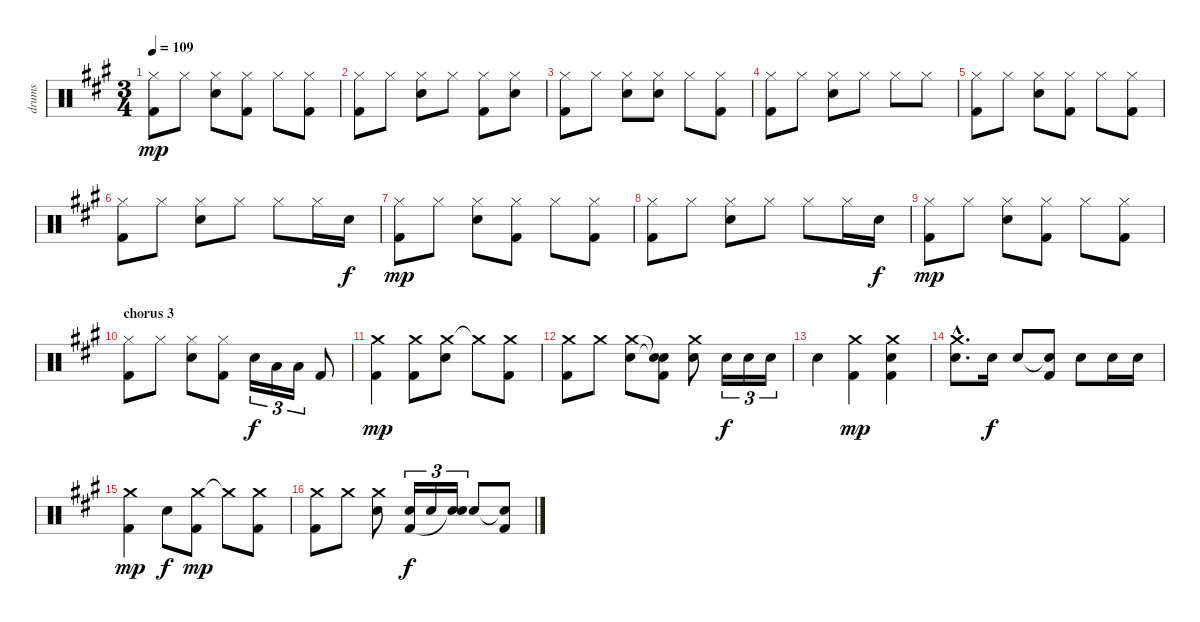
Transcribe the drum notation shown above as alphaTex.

\track ("drums" "drums") {instrument percussion}
\staff {score}
\articulation defaults
\ts (3 4)
\tempo 109
\clef neutral
\ks a
("Hi-Hat (closed)" "Kick (hit) 2").8{dy mp} "Hi-Hat (closed)".8 ("Hi-Hat (closed)" "Snare (hit) 2").8 ("Hi-Hat (closed)" "Kick (hit) 2").8 "Hi-Hat (closed)".8 ("Hi-Hat (closed)" "Kick (hit) 2").8 |
("Hi-Hat (closed)" "Kick (hit) 2").8 "Hi-Hat (closed)".8 ("Hi-Hat (closed)" "Snare (hit) 2").8 "Hi-Hat (closed)".8 ("Hi-Hat (closed)" "Kick (hit) 2").8 ("Hi-Hat (closed)" "Snare (hit) 2").8 |
("Hi-Hat (closed)" "Kick (hit) 2").8 "Hi-Hat (closed)".8 ("Hi-Hat (closed)" "Snare (hit) 2").8 ("Hi-Hat (closed)" "Snare (hit) 2").8 "Hi-Hat (closed)".8 ("Hi-Hat (closed)" "Kick (hit) 2").8 |
("Hi-Hat (closed)" "Kick (hit) 2").8 "Hi-Hat (closed)".8 ("Hi-Hat (closed)" "Snare (hit) 2").8 "Hi-Hat (closed)".8 "Hi-Hat (closed)".8 "Hi-Hat (closed)".8 |
("Hi-Hat (closed)" "Kick (hit) 2").8 "Hi-Hat (closed)".8 ("Hi-Hat (closed)" "Snare (hit) 2").8 ("Hi-Hat (closed)" "Kick (hit) 2").8 "Hi-Hat (closed)".8 ("Hi-Hat (closed)" "Kick (hit) 2").8 |
("Hi-Hat (closed)" "Kick (hit) 2").8 "Hi-Hat (closed)".8 ("Hi-Hat (closed)" "Snare (hit) 2").8 "Hi-Hat (closed)".8 "Hi-Hat (closed)".8 "Hi-Hat (closed)".16 "Snare (hit) 2".16{dy f} |
("Hi-Hat (closed)" "Kick (hit) 2").8{dy mp} "Hi-Hat (closed)".8 ("Hi-Hat (closed)" "Snare (hit) 2").8 ("Hi-Hat (closed)" "Kick (hit) 2").8 "Hi-Hat (closed)".8 ("Hi-Hat (closed)" "Kick (hit) 2").8 |
("Hi-Hat (closed)" "Kick (hit) 2").8 "Hi-Hat (closed)".8 ("Hi-Hat (closed)" "Snare (hit) 2").8 "Hi-Hat (closed)".8 "Hi-Hat (closed)".8 "Hi-Hat (closed)".16 "Snare (hit) 2".16{dy f} |
("Hi-Hat (closed)" "Kick (hit) 2").8{dy mp} "Hi-Hat (closed)".8 ("Hi-Hat (closed)" "Snare (hit) 2").8 ("Hi-Hat (closed)" "Kick (hit) 2").8 "Hi-Hat (closed)".8 ("Hi-Hat (closed)" "Kick (hit) 2").8 |
\section ("" "chorus 3")
("Hi-Hat (closed)" "Kick (hit) 2").8 "Hi-Hat (closed)".8 ("Hi-Hat (closed)" "Snare (hit) 2").8 ("Hi-Hat (closed)" "Kick (hit) 2").8 "Snare (hit) 2".16{tu (3 2) dy f} "Low Tom (hit)".16{tu (3 2)} "Low Tom (hit)".16{tu (3 2)} "Kick (hit) 2".8 |
("Crash medium (hit)" "Kick (hit) 2").4{dy mp} ("Crash medium (hit)" "Kick (hit) 2").8 ("Crash medium (hit)" "Snare (hit) 2").8 "Crash medium (hit)"{t}.8 ("Crash medium (hit)" "Kick (hit) 2").8 |
("Crash medium (hit)" "Kick (hit) 2").8 "Crash medium (hit)".8 ("Crash medium (hit)" "Snare (hit) 2").8 ("Snare (hit)"{t} "Snare (hit)"{t} "Kick (hit) 2").8 ("Crash medium (hit)" "Snare (hit) 2").8 "Snare (hit) 2".16{tu (3 2) dy f} "Snare (hit) 2".16{tu (3 2)} "Snare (hit) 2".16{tu (3 2)} |
"Snare (hit) 2".4 ("Crash medium (hit)" "Kick (hit) 2").4{dy mp} ("Crash medium (hit)" "Snare (hit) 2" "Kick (hit) 2").4 |
("Crash medium (hit)"{hac} "Snare (hit) 2"{hac}).8{d} "Snare (hit) 2".16{dy f} "Snare (hit) 2".8 ("Snare (hit)"{t} "Kick (hit) 2").8 "Snare (hit) 2".8 "Snare (hit) 2".16 "Snare (hit) 2".16 |
("Crash medium (hit)" "Kick (hit) 2").4{dy mp} "Snare (hit) 2".8{dy f} ("Crash medium (hit)" "Kick (hit) 2").8{dy mp} "Crash medium (hit)"{t}.8 ("Crash medium (hit)" "Kick (hit) 2").8 |
("Crash medium (hit)" "Kick (hit) 2").8 "Crash medium (hit)".8 ("Crash medium (hit)" "Snare (hit) 2").8 ("Snare (hit) 2" "Kick (hit) 2").16{tu (3 2) dy f} "Snare (hit) 2".16{tu (3 2)} ("Snare (hit) 2" "Snare (hit)"{t}).16{tu (3 2)} "Snare (hit) 2".8 ("Snare (hit) 2"{t} "Kick (hit) 2").8
